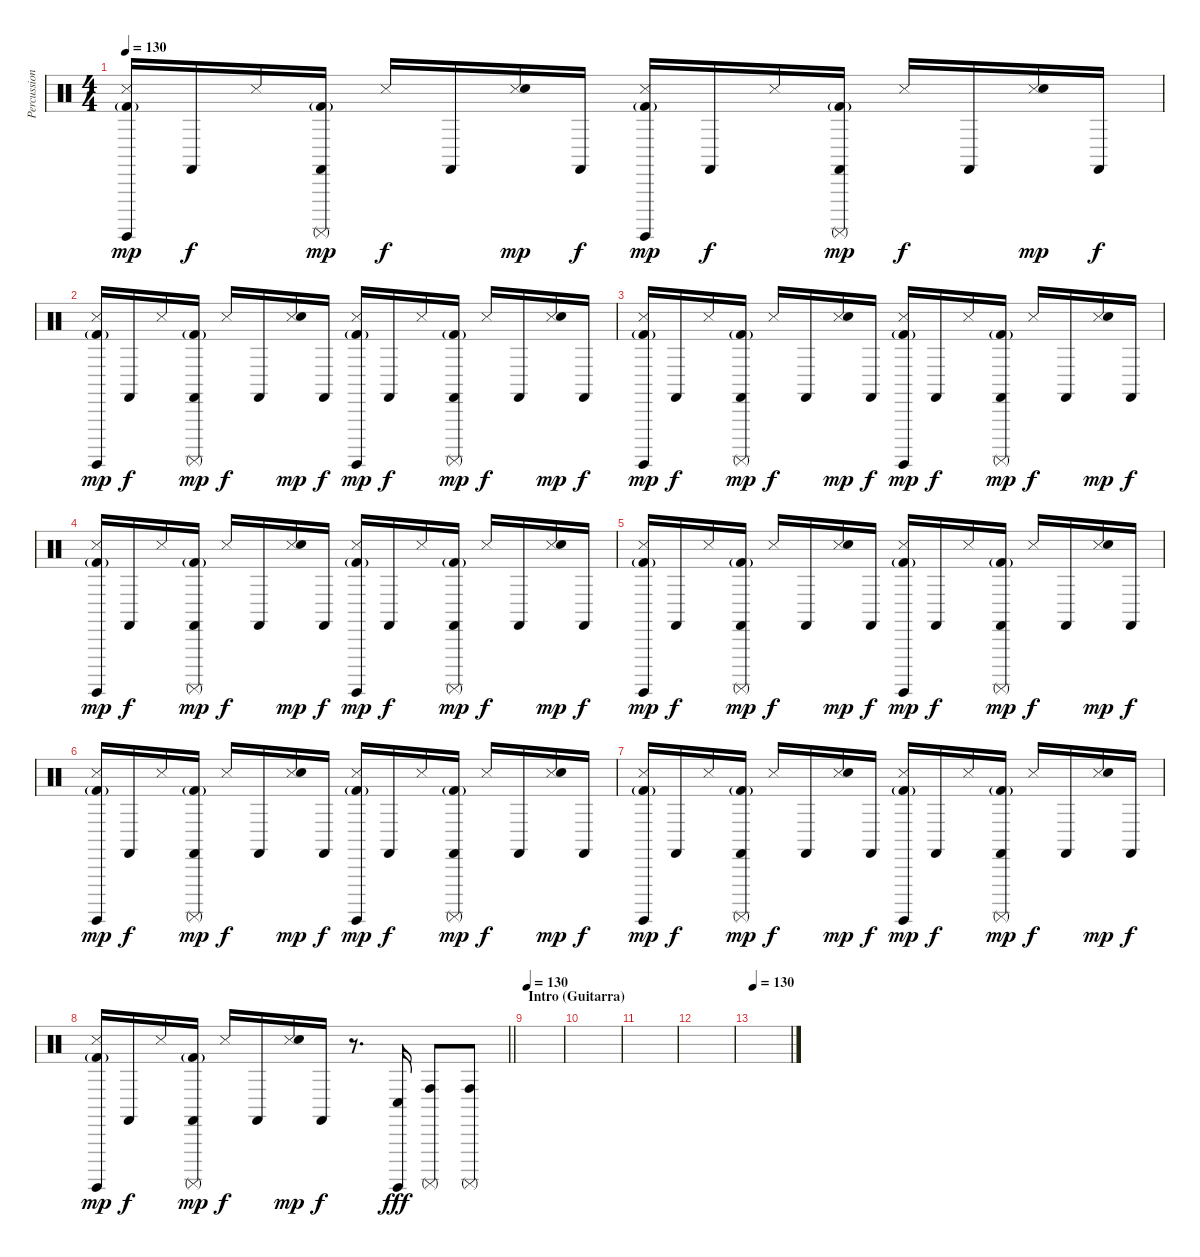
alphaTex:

\track ("Percussion" "Percussion") {instrument percussion}
\staff {score}
\articulation defaults
\ts (4 4)
\tempo 130
\clef neutral
\ks c
("Snare (side stick) 3" "Surdo (hit)" "Kick (hit) 2"{g}).16{dy mp} "Castanets (hit)".16{dy f} "Snare (side stick) 3".16 ("Castanets (hit)" "Surdo (mute)" "Kick (hit) 2"{g}).16{dy mp} "Snare (side stick) 3".16{dy f} "Castanets (hit)".16 ("Snare (side stick) 3" "Electric Snare (hit)").16{dy mp} "Castanets (hit)".16{dy f} ("Snare (side stick) 3" "Surdo (hit)" "Kick (hit) 2"{g}).16{dy mp} "Castanets (hit)".16{dy f} "Snare (side stick) 3".16 ("Castanets (hit)" "Surdo (mute)" "Kick (hit) 2"{g}).16{dy mp} "Snare (side stick) 3".16{dy f} "Castanets (hit)".16 ("Snare (side stick) 3" "Electric Snare (hit)").16{dy mp} "Castanets (hit)".16{dy f} |
("Snare (side stick) 3" "Surdo (hit)" "Kick (hit) 2"{g}).16{dy mp} "Castanets (hit)".16{dy f} "Snare (side stick) 3".16 ("Castanets (hit)" "Surdo (mute)" "Kick (hit) 2"{g}).16{dy mp} "Snare (side stick) 3".16{dy f} "Castanets (hit)".16 ("Snare (side stick) 3" "Electric Snare (hit)").16{dy mp} "Castanets (hit)".16{dy f} ("Snare (side stick) 3" "Surdo (hit)" "Kick (hit) 2"{g}).16{dy mp} "Castanets (hit)".16{dy f} "Snare (side stick) 3".16 ("Castanets (hit)" "Surdo (mute)" "Kick (hit) 2"{g}).16{dy mp} "Snare (side stick) 3".16{dy f} "Castanets (hit)".16 ("Snare (side stick) 3" "Electric Snare (hit)").16{dy mp} "Castanets (hit)".16{dy f} |
("Snare (side stick) 3" "Surdo (hit)" "Kick (hit) 2"{g}).16{dy mp} "Castanets (hit)".16{dy f} "Snare (side stick) 3".16 ("Castanets (hit)" "Surdo (mute)" "Kick (hit) 2"{g}).16{dy mp} "Snare (side stick) 3".16{dy f} "Castanets (hit)".16 ("Snare (side stick) 3" "Electric Snare (hit)").16{dy mp} "Castanets (hit)".16{dy f} ("Snare (side stick) 3" "Surdo (hit)" "Kick (hit) 2"{g}).16{dy mp} "Castanets (hit)".16{dy f} "Snare (side stick) 3".16 ("Castanets (hit)" "Surdo (mute)" "Kick (hit) 2"{g}).16{dy mp} "Snare (side stick) 3".16{dy f} "Castanets (hit)".16 ("Snare (side stick) 3" "Electric Snare (hit)").16{dy mp} "Castanets (hit)".16{dy f} |
("Snare (side stick) 3" "Surdo (hit)" "Kick (hit) 2"{g}).16{dy mp} "Castanets (hit)".16{dy f} "Snare (side stick) 3".16 ("Castanets (hit)" "Surdo (mute)" "Kick (hit) 2"{g}).16{dy mp} "Snare (side stick) 3".16{dy f} "Castanets (hit)".16 ("Snare (side stick) 3" "Electric Snare (hit)").16{dy mp} "Castanets (hit)".16{dy f} ("Snare (side stick) 3" "Surdo (hit)" "Kick (hit) 2"{g}).16{dy mp} "Castanets (hit)".16{dy f} "Snare (side stick) 3".16 ("Castanets (hit)" "Surdo (mute)" "Kick (hit) 2"{g}).16{dy mp} "Snare (side stick) 3".16{dy f} "Castanets (hit)".16 ("Snare (side stick) 3" "Electric Snare (hit)").16{dy mp} "Castanets (hit)".16{dy f} |
("Snare (side stick) 3" "Surdo (hit)" "Kick (hit) 2"{g}).16{dy mp} "Castanets (hit)".16{dy f} "Snare (side stick) 3".16 ("Castanets (hit)" "Surdo (mute)" "Kick (hit) 2"{g}).16{dy mp} "Snare (side stick) 3".16{dy f} "Castanets (hit)".16 ("Snare (side stick) 3" "Electric Snare (hit)").16{dy mp} "Castanets (hit)".16{dy f} ("Snare (side stick) 3" "Surdo (hit)" "Kick (hit) 2"{g}).16{dy mp} "Castanets (hit)".16{dy f} "Snare (side stick) 3".16 ("Castanets (hit)" "Surdo (mute)" "Kick (hit) 2"{g}).16{dy mp} "Snare (side stick) 3".16{dy f} "Castanets (hit)".16 ("Snare (side stick) 3" "Electric Snare (hit)").16{dy mp} "Castanets (hit)".16{dy f} |
("Snare (side stick) 3" "Surdo (hit)" "Kick (hit) 2"{g}).16{dy mp} "Castanets (hit)".16{dy f} "Snare (side stick) 3".16 ("Castanets (hit)" "Surdo (mute)" "Kick (hit) 2"{g}).16{dy mp} "Snare (side stick) 3".16{dy f} "Castanets (hit)".16 ("Snare (side stick) 3" "Electric Snare (hit)").16{dy mp} "Castanets (hit)".16{dy f} ("Snare (side stick) 3" "Surdo (hit)" "Kick (hit) 2"{g}).16{dy mp} "Castanets (hit)".16{dy f} "Snare (side stick) 3".16 ("Castanets (hit)" "Surdo (mute)" "Kick (hit) 2"{g}).16{dy mp} "Snare (side stick) 3".16{dy f} "Castanets (hit)".16 ("Snare (side stick) 3" "Electric Snare (hit)").16{dy mp} "Castanets (hit)".16{dy f} |
("Snare (side stick) 3" "Surdo (hit)" "Kick (hit) 2"{g}).16{dy mp} "Castanets (hit)".16{dy f} "Snare (side stick) 3".16 ("Castanets (hit)" "Surdo (mute)" "Kick (hit) 2"{g}).16{dy mp} "Snare (side stick) 3".16{dy f} "Castanets (hit)".16 ("Snare (side stick) 3" "Electric Snare (hit)").16{dy mp} "Castanets (hit)".16{dy f} ("Snare (side stick) 3" "Surdo (hit)" "Kick (hit) 2"{g}).16{dy mp} "Castanets (hit)".16{dy f} "Snare (side stick) 3".16 ("Castanets (hit)" "Surdo (mute)" "Kick (hit) 2"{g}).16{dy mp} "Snare (side stick) 3".16{dy f} "Castanets (hit)".16 ("Snare (side stick) 3" "Electric Snare (hit)").16{dy mp} "Castanets (hit)".16{dy f} |
\barLineRight lightlight
("Snare (side stick) 3" "Surdo (hit)" "Kick (hit) 2"{g}).16{dy mp} "Castanets (hit)".16{dy f} "Snare (side stick) 3".16 ("Castanets (hit)" "Surdo (mute)" "Kick (hit) 2"{g}).16{dy mp} "Snare (side stick) 3".16{dy f} "Castanets (hit)".16 ("Snare (side stick) 3" "Electric Snare (hit)").16{dy mp} "Castanets (hit)".16{dy f} r.8{d} ("Conga low (hit)" "Surdo (hit)").16{dy fff} ("Conga high (hit)" "Surdo (mute)").8 ("Conga high (hit)" "Surdo (mute)").8 |
\section ("" "Intro (Guitarra)")
\tempo 130
|
|
|
|
\tempo 130
